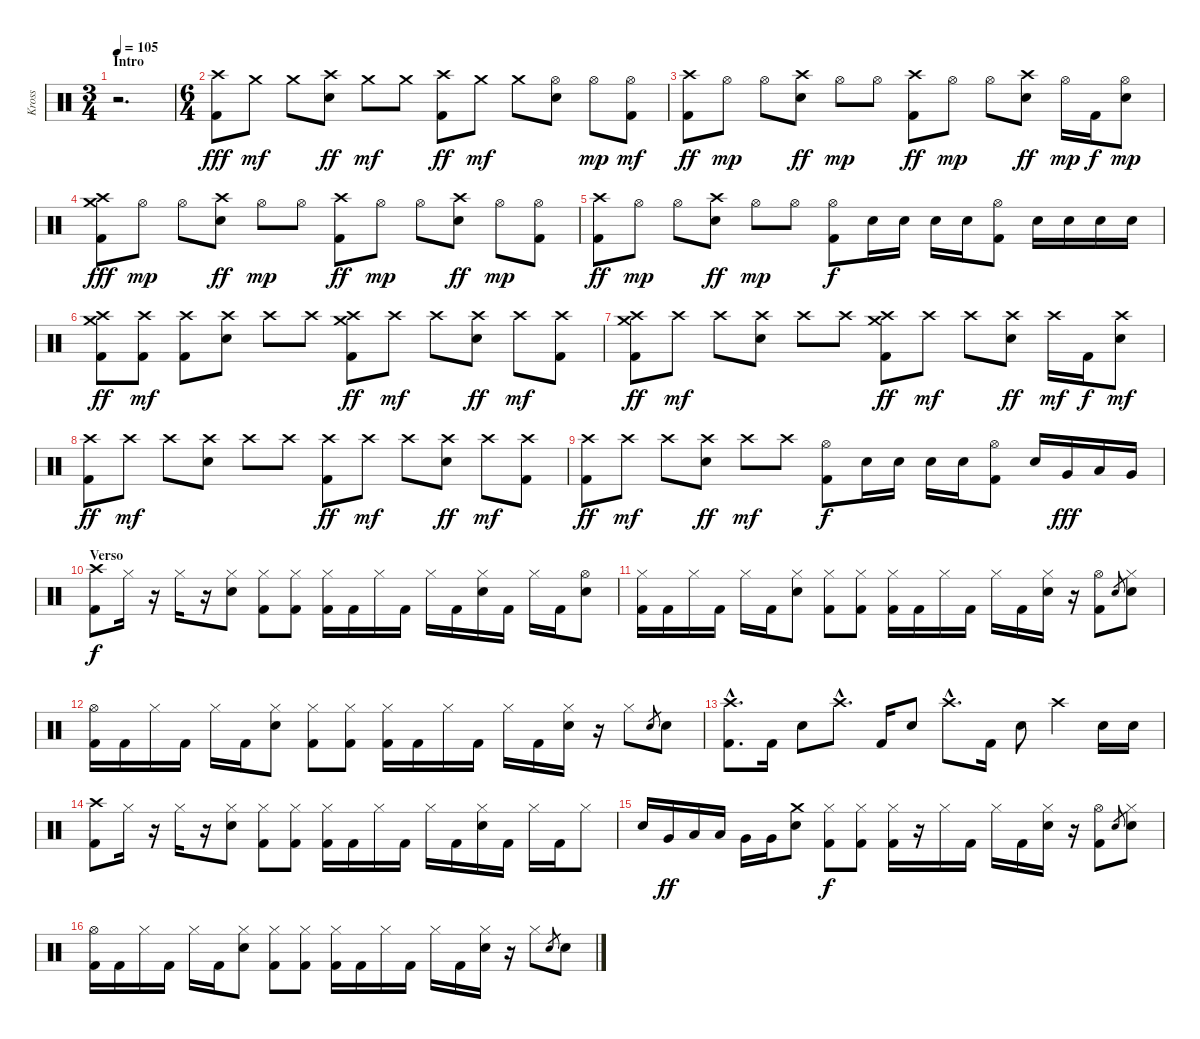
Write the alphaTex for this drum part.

\track ("Kross" "Kross") {instrument percussion}
\staff {score}
\articulation defaults
\ts (3 4)
\section ("" "Intro")
\tempo 105
\clef neutral
\ks c
r.2{d dy fff} |
\ts (6 4)
("Crash high (hit)" "Kick (hit) 2").8 "Crash medium (hit)".8{dy mf} "Crash medium (hit)".8 ("Crash high (hit)" "Electric Snare (hit)").8{dy ff} "Crash medium (hit)".8{dy mf} "Crash medium (hit)".8 ("Crash high (hit)" "Kick (hit) 2").8{dy ff} "Crash medium (hit)".8{dy mf} "Crash medium (hit)".8 ("Hi-Hat (open)" "Electric Snare (hit)").8 "Hi-Hat (open)".8{dy mp} ("Hi-Hat (open)" "Kick (hit) 2").8{dy mf} |
("Crash high (hit)" "Kick (hit) 2").8{dy ff} "Hi-Hat (open)".8{dy mp} "Hi-Hat (open)".8 ("Crash high (hit)" "Electric Snare (hit)").8{dy ff} "Hi-Hat (open)".8{dy mp} "Hi-Hat (open)".8 ("Crash high (hit)" "Kick (hit) 2").8{dy ff} "Hi-Hat (open)".8{dy mp} "Hi-Hat (open)".8 ("Crash high (hit)" "Electric Snare (hit)").8{dy ff} "Hi-Hat (open)".16{dy mp} "Kick (hit) 2".16{dy f} ("Hi-Hat (open)" "Electric Snare (hit)").8{dy mp} |
("Crash high (hit)" "Crash medium (hit)" "Kick (hit) 2").8{dy fff} "Hi-Hat (open)".8{dy mp} "Hi-Hat (open)".8 ("Crash high (hit)" "Electric Snare (hit)").8{dy ff} "Hi-Hat (open)".8{dy mp} "Hi-Hat (open)".8 ("Crash high (hit)" "Kick (hit) 2").8{dy ff} "Hi-Hat (open)".8{dy mp} "Hi-Hat (open)".8 ("Crash high (hit)" "Electric Snare (hit)").8{dy ff} "Hi-Hat (open)".8{dy mp} ("Hi-Hat (open)" "Kick (hit) 2").8 |
("Crash high (hit)" "Kick (hit) 2").8{dy ff} "Hi-Hat (open)".8{dy mp} "Hi-Hat (open)".8 ("Crash high (hit)" "Electric Snare (hit)").8{dy ff} "Hi-Hat (open)".8{dy mp} "Hi-Hat (open)".8 ("Hi-Hat (open)" "Kick (hit) 2").8{dy f} "Electric Snare (hit)".16 "Electric Snare (hit)".16 "Electric Snare (hit)".16 "Electric Snare (hit)".16 ("Hi-Hat (open)" "Kick (hit) 2").8 "Electric Snare (hit)".16 "Electric Snare (hit)".16 "Electric Snare (hit)".16 "Electric Snare (hit)".16 |
("Crash high (hit)" "Crash medium (hit)" "Kick (hit) 2").8{dy ff} ("Crash high (hit)" "Kick (hit) 2").8{dy mf} ("Crash high (hit)" "Kick (hit) 2").8 ("Crash high (hit)" "Electric Snare (hit)").8 "Crash high (hit)".8 "Crash high (hit)".8 ("Crash high (hit)" "Crash medium (hit)" "Kick (hit) 2").8{dy ff} "Crash high (hit)".8{dy mf} "Crash high (hit)".8 ("Crash high (hit)" "Electric Snare (hit)").8{dy ff} "Crash high (hit)".8{dy mf} ("Crash high (hit)" "Kick (hit) 2").8 |
("Crash high (hit)" "Crash medium (hit)" "Kick (hit) 2").8{dy ff} "Crash high (hit)".8{dy mf} "Crash high (hit)".8 ("Crash high (hit)" "Electric Snare (hit)").8 "Crash high (hit)".8 "Crash high (hit)".8 ("Crash high (hit)" "Crash medium (hit)" "Kick (hit) 2").8{dy ff} "Crash high (hit)".8{dy mf} "Crash high (hit)".8 ("Crash high (hit)" "Electric Snare (hit)").8{dy ff} "Crash high (hit)".16{dy mf} "Kick (hit) 2".16{dy f} ("Crash high (hit)" "Electric Snare (hit)").8{dy mf} |
("Crash high (hit)" "Kick (hit) 2").8{dy ff} "Crash high (hit)".8{dy mf} "Crash high (hit)".8 ("Crash high (hit)" "Electric Snare (hit)").8 "Crash high (hit)".8 "Crash high (hit)".8 ("Crash high (hit)" "Kick (hit) 2").8{dy ff} "Crash high (hit)".8{dy mf} "Crash high (hit)".8 ("Crash high (hit)" "Electric Snare (hit)").8{dy ff} "Crash high (hit)".8{dy mf} ("Crash high (hit)" "Kick (hit) 2").8 |
("Crash high (hit)" "Kick (hit) 2").8{dy ff} "Crash high (hit)".8{dy mf} "Crash high (hit)".8 ("Crash high (hit)" "Electric Snare (hit)").8{dy ff} "Crash high (hit)".8{dy mf} "Crash high (hit)".8 ("Hi-Hat (open)" "Kick (hit) 2").8{dy f} "Electric Snare (hit)".16 "Electric Snare (hit)".16 "Electric Snare (hit)".16 "Electric Snare (hit)".16 ("Hi-Hat (open)" "Kick (hit) 2").8 "Electric Snare (hit)".16 "Very Low Tom (hit)".16{dy fff} "Low Tom (hit)".16 "Very Low Tom (hit)".16 |
\section ("" "Verso")
("Crash high (hit)" "Kick (hit) 2").8{dy f} "Hi-Hat (closed)".16 r.16 "Hi-Hat (closed)".16 r.16 ("Hi-Hat (closed)" "Electric Snare (hit)").8 ("Hi-Hat (closed)" "Kick (hit) 2").8 ("Hi-Hat (closed)" "Kick (hit) 2").8 ("Hi-Hat (closed)" "Kick (hit) 2").16 "Kick (hit) 2".16 "Hi-Hat (closed)".16 "Kick (hit) 2".16 "Hi-Hat (closed)".16 "Kick (hit) 2".16 ("Hi-Hat (closed)" "Electric Snare (hit)").16 "Kick (hit) 2".16 "Hi-Hat (closed)".16 "Kick (hit) 2".16 ("Hi-Hat (open)" "Electric Snare (hit)").8 |
("Hi-Hat (closed)" "Kick (hit) 2").16 "Kick (hit) 2".16 "Hi-Hat (closed)".16 "Kick (hit) 2".16 "Hi-Hat (closed)".16 "Kick (hit) 2".16 ("Hi-Hat (closed)" "Electric Snare (hit)").8 ("Hi-Hat (closed)" "Kick (hit) 2").8 ("Hi-Hat (closed)" "Kick (hit) 2").8 ("Hi-Hat (closed)" "Kick (hit) 2").16 "Kick (hit) 2".16 "Hi-Hat (closed)".16 "Kick (hit) 2".16 "Hi-Hat (closed)".16 "Kick (hit) 2".16 ("Hi-Hat (closed)" "Electric Snare (hit)").16 r.16 ("Hi-Hat (open)" "Kick (hit) 2").8 "Electric Snare (hit)".8{gr} ("Hi-Hat (closed)" "Electric Snare (hit)").8 |
("Hi-Hat (open)" "Kick (hit) 2").16 "Kick (hit) 2".16 "Hi-Hat (closed)".16 "Kick (hit) 2".16 "Hi-Hat (closed)".16 "Kick (hit) 2".16 ("Hi-Hat (closed)" "Electric Snare (hit)").8 ("Hi-Hat (closed)" "Kick (hit) 2").8 ("Hi-Hat (closed)" "Kick (hit) 2").8 ("Hi-Hat (closed)" "Kick (hit) 2").16 "Kick (hit) 2".16 "Hi-Hat (closed)".16 "Kick (hit) 2".16 "Hi-Hat (closed)".16 "Kick (hit) 2".16 ("Hi-Hat (closed)" "Electric Snare (hit)").16 r.16 "Hi-Hat (closed)".8 "Electric Snare (hit)".8{gr} "Electric Snare (hit)".8 |
("Crash high (hit)"{hac} "Kick (hit) 2"{hac}).8{d} "Kick (hit) 2".16 "Electric Snare (hit)".8 "Crash high (hit)"{hac}.8{d} "Kick (hit) 2".16 "Electric Snare (hit)".8 "Crash high (hit)"{hac}.8{d} "Kick (hit) 2".16 "Electric Snare (hit)".8 "Crash high (hit)".4 "Electric Snare (hit)".16 "Electric Snare (hit)".16 |
("Crash high (hit)" "Kick (hit) 2").8 "Hi-Hat (closed)".16 r.16 "Hi-Hat (closed)".16 r.16 ("Hi-Hat (closed)" "Electric Snare (hit)").8 ("Hi-Hat (closed)" "Kick (hit) 2").8 ("Hi-Hat (closed)" "Kick (hit) 2").8 ("Hi-Hat (closed)" "Kick (hit) 2").16 "Kick (hit) 2".16 "Hi-Hat (closed)".16 "Kick (hit) 2".16 "Hi-Hat (closed)".16 "Kick (hit) 2".16 ("Hi-Hat (closed)" "Electric Snare (hit)").16 "Kick (hit) 2".16 "Hi-Hat (closed)".16 "Kick (hit) 2".16 "Hi-Hat (closed)".8 |
"Electric Snare (hit)".16 "Very Low Tom (hit)".16{dy ff} "Low Tom (hit)".16 "Low Tom (hit)".16 "Very Low Tom (hit)".16 "Very Low Tom (hit)".16 ("Crash medium (hit)" "Electric Snare (hit)").8 ("Hi-Hat (closed)" "Kick (hit) 2").8{dy f} ("Hi-Hat (closed)" "Kick (hit) 2").8 ("Hi-Hat (closed)" "Kick (hit) 2").16 r.16 "Hi-Hat (closed)".16 "Kick (hit) 2".16 "Hi-Hat (closed)".16 "Kick (hit) 2".16 ("Hi-Hat (closed)" "Electric Snare (hit)").16 r.16 ("Hi-Hat (open)" "Kick (hit) 2").8 "Electric Snare (hit)".8{gr} ("Hi-Hat (closed)" "Electric Snare (hit)").8 |
("Hi-Hat (open)" "Kick (hit) 2").16 "Kick (hit) 2".16 "Hi-Hat (closed)".16 "Kick (hit) 2".16 "Hi-Hat (closed)".16 "Kick (hit) 2".16 ("Hi-Hat (closed)" "Electric Snare (hit)").8 ("Hi-Hat (closed)" "Kick (hit) 2").8 ("Hi-Hat (closed)" "Kick (hit) 2").8 ("Hi-Hat (closed)" "Kick (hit) 2").16 "Kick (hit) 2".16 "Hi-Hat (closed)".16 "Kick (hit) 2".16 "Hi-Hat (closed)".16 "Kick (hit) 2".16 ("Hi-Hat (closed)" "Electric Snare (hit)").16 r.16 "Hi-Hat (closed)".8 "Electric Snare (hit)".8{gr} "Electric Snare (hit)".8
